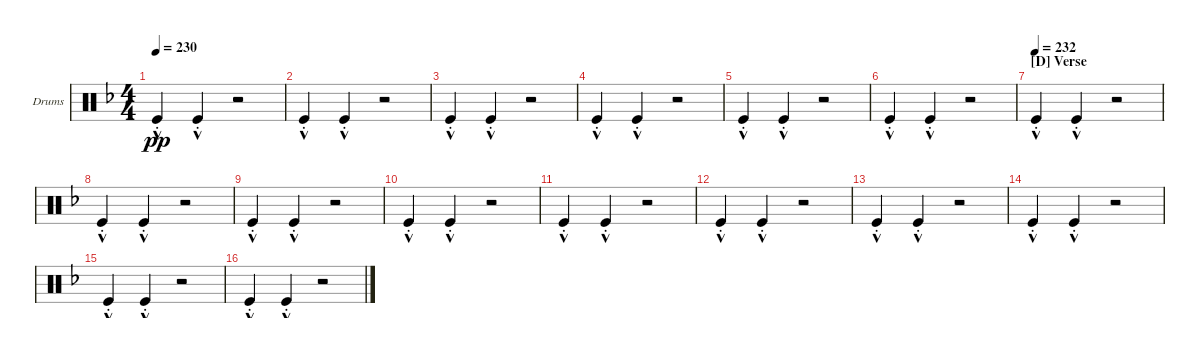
\defaultSystemsLayout 4
\bracketExtendMode groupsimilarinstruments
\firstSystemTrackNameOrientation horizontal
\otherSystemsTrackNameOrientation horizontal
\track ("Drumkit" "Drums") {instrument percussion}
\staff {score}
\articulation defaults
\ts (4 4)
\tempo 230
\clef neutral
\ks dminor "Kick (hit)"{hac st}.4{dy pp} "Kick (hit)"{hac st}.4
r.2 |
"Kick (hit)"{hac st}.4 "Kick (hit)"{hac st}.4 r.2 |
"Kick (hit)"{hac st}.4 "Kick (hit)"{hac st}.4 r.2 |
"Kick (hit)"{hac st}.4 "Kick (hit)"{hac st}.4 r.2 |
"Kick (hit)"{hac st}.4 "Kick (hit)"{hac st}.4 r.2 |
"Kick (hit)"{hac st}.4 "Kick (hit)"{hac st}.4 r.2 |
\section ("D" "Verse")
\tempo (232)
"Kick (hit)"{hac st}.4 "Kick (hit)"{hac st}.4 r.2 |
"Kick (hit)"{hac st}.4 "Kick (hit)"{hac st}.4 r.2 |
"Kick (hit)"{hac st}.4 "Kick (hit)"{hac st}.4 r.2 |
"Kick (hit)"{hac st}.4 "Kick (hit)"{hac st}.4 r.2 |
"Kick (hit)"{hac st}.4 "Kick (hit)"{hac st}.4 r.2 |
"Kick (hit)"{hac st}.4 "Kick (hit)"{hac st}.4 r.2 |
"Kick (hit)"{hac st}.4 "Kick (hit)"{hac st}.4 r.2 |
"Kick (hit)"{hac st}.4 "Kick (hit)"{hac st}.4 r.2 |
"Kick (hit)"{hac st}.4 "Kick (hit)"{hac st}.4 r.2 |
"Kick (hit)"{hac st}.4 "Kick (hit)"{hac st}.4 r.2
